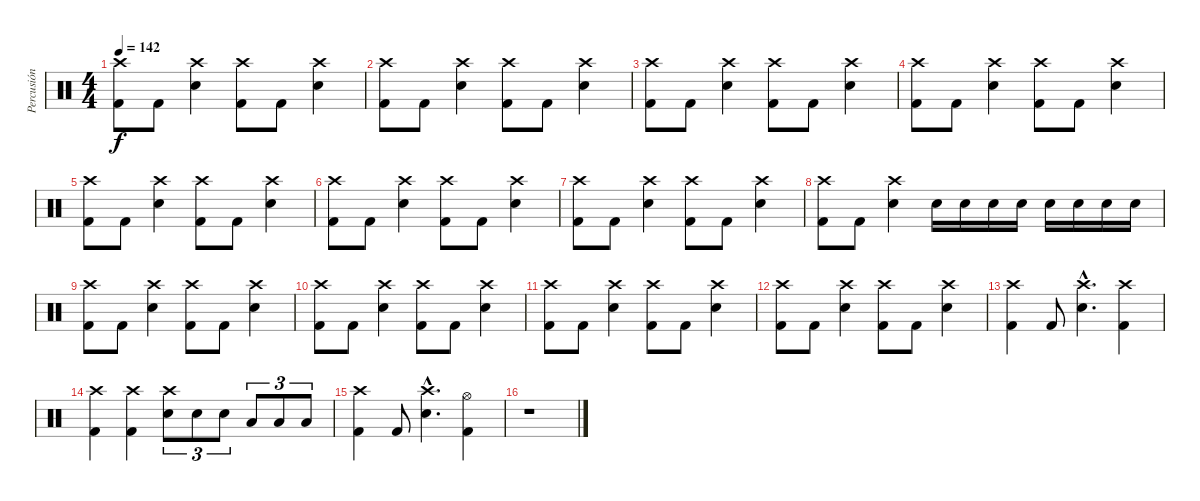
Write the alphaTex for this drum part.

\track ("Percusión  " "Percusión ") {instrument percussion}
\staff {score}
\articulation defaults
\ts (4 4)
\tempo 142
\clef neutral
\ks c
("Crash high (hit)" "Kick (hit) 2").8{dy f} "Kick (hit) 2".8 ("Crash high (hit)" "Electric Snare (hit)").4 ("Crash high (hit)" "Kick (hit) 2").8 "Kick (hit) 2".8 ("Crash high (hit)" "Electric Snare (hit)").4 |
("Crash high (hit)" "Kick (hit) 2").8 "Kick (hit) 2".8 ("Crash high (hit)" "Electric Snare (hit)").4 ("Crash high (hit)" "Kick (hit) 2").8 "Kick (hit) 2".8 ("Crash high (hit)" "Electric Snare (hit)").4 |
("Crash high (hit)" "Kick (hit) 2").8 "Kick (hit) 2".8 ("Crash high (hit)" "Electric Snare (hit)").4 ("Crash high (hit)" "Kick (hit) 2").8 "Kick (hit) 2".8 ("Crash high (hit)" "Electric Snare (hit)").4 |
("Crash high (hit)" "Kick (hit) 2").8 "Kick (hit) 2".8 ("Crash high (hit)" "Electric Snare (hit)").4 ("Crash high (hit)" "Kick (hit) 2").8 "Kick (hit) 2".8 ("Crash high (hit)" "Electric Snare (hit)").4 |
("Crash high (hit)" "Kick (hit) 2").8 "Kick (hit) 2".8 ("Crash high (hit)" "Electric Snare (hit)").4 ("Crash high (hit)" "Kick (hit) 2").8 "Kick (hit) 2".8 ("Crash high (hit)" "Electric Snare (hit)").4 |
("Crash high (hit)" "Kick (hit) 2").8 "Kick (hit) 2".8 ("Crash high (hit)" "Electric Snare (hit)").4 ("Crash high (hit)" "Kick (hit) 2").8 "Kick (hit) 2".8 ("Crash high (hit)" "Electric Snare (hit)").4 |
("Crash high (hit)" "Kick (hit) 2").8 "Kick (hit) 2".8 ("Crash high (hit)" "Electric Snare (hit)").4 ("Crash high (hit)" "Kick (hit) 2").8 "Kick (hit) 2".8 ("Crash high (hit)" "Electric Snare (hit)").4 |
("Crash high (hit)" "Kick (hit) 2").8 "Kick (hit) 2".8 ("Crash high (hit)" "Electric Snare (hit)").4 "Electric Snare (hit)".16 "Electric Snare (hit)".16 "Electric Snare (hit)".16 "Electric Snare (hit)".16 "Electric Snare (hit)".16 "Electric Snare (hit)".16 "Electric Snare (hit)".16 "Electric Snare (hit)".16 |
("Crash high (hit)" "Kick (hit) 2").8 "Kick (hit) 2".8 ("Crash high (hit)" "Electric Snare (hit)").4 ("Crash high (hit)" "Kick (hit) 2").8 "Kick (hit) 2".8 ("Crash high (hit)" "Electric Snare (hit)").4 |
("Crash high (hit)" "Kick (hit) 2").8 "Kick (hit) 2".8 ("Crash high (hit)" "Electric Snare (hit)").4 ("Crash high (hit)" "Kick (hit) 2").8 "Kick (hit) 2".8 ("Crash high (hit)" "Electric Snare (hit)").4 |
("Crash high (hit)" "Kick (hit) 2").8 "Kick (hit) 2".8 ("Crash high (hit)" "Electric Snare (hit)").4 ("Crash high (hit)" "Kick (hit) 2").8 "Kick (hit) 2".8 ("Crash high (hit)" "Electric Snare (hit)").4 |
("Crash high (hit)" "Kick (hit) 2").8 "Kick (hit) 2".8 ("Crash high (hit)" "Electric Snare (hit)").4 ("Crash high (hit)" "Kick (hit) 2").8 "Kick (hit) 2".8 ("Crash high (hit)" "Electric Snare (hit)").4 |
("Crash high (hit)" "Kick (hit) 2").4 "Kick (hit) 2".8 ("Crash high (hit)"{hac} "Electric Snare (hit)"{hac}).4{d} ("Crash high (hit)" "Kick (hit) 2").4 |
("Crash high (hit)" "Kick (hit) 2").4 ("Crash high (hit)" "Kick (hit) 2").4 ("Crash high (hit)" "Electric Snare (hit)").8{tu (3 2)} "Electric Snare (hit)".8{tu (3 2)} "Electric Snare (hit)".8{tu (3 2)} "Low Tom (hit)".8{tu (3 2)} "Low Tom (hit)".8{tu (3 2)} "Low Tom (hit)".8{tu (3 2)} |
("Crash high (hit)" "Kick (hit) 2").4 "Kick (hit) 2".8 ("Crash high (hit)"{hac} "Electric Snare (hit)"{hac}).4{d} ("Hi-Hat (open)" "Kick (hit) 2").4 |
r.1
